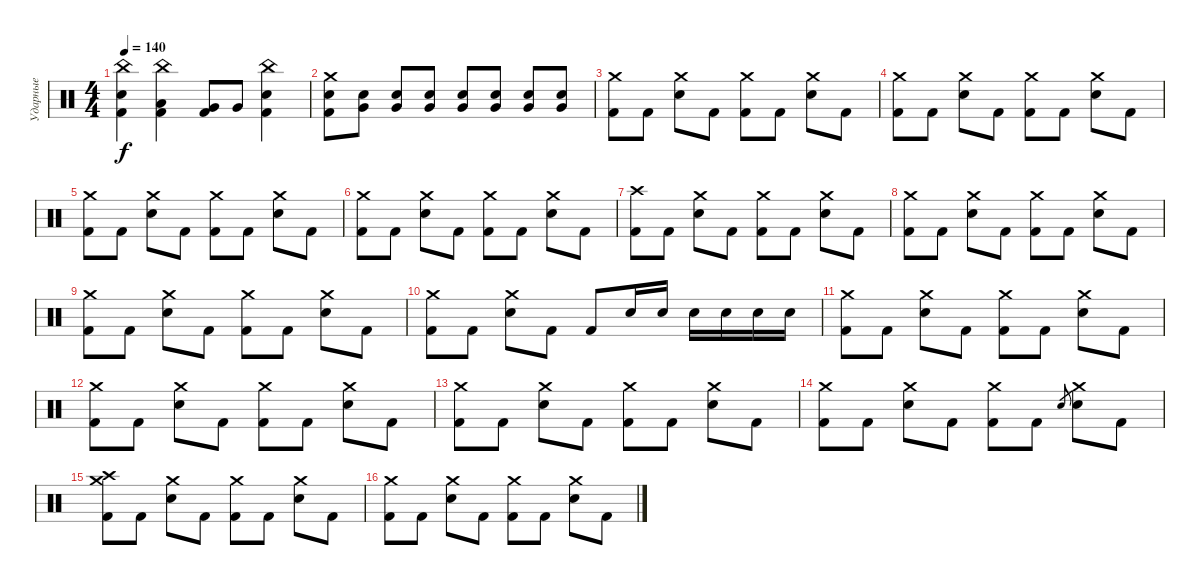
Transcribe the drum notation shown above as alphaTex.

\track ("Ударные" "Ударные") {instrument percussion}
\staff {score}
\articulation defaults
\ts (4 4)
\tempo 140
\clef neutral
\ks c
("China (hit)" "Electric Snare (hit)" "Kick (hit) 2").4{dy f} ("China (hit)" "Low Tom (hit)" "Kick (hit) 2").4 ("Very Low Tom (hit)" "Kick (hit) 2").8 "Very Low Tom (hit)".8 ("Electric Snare (hit)" "China (hit)" "Kick (hit) 2").4 |
("Crash medium (hit)" "Electric Snare (hit)" "Kick (hit) 2").8 ("Electric Snare (hit)" "Very Low Tom (hit)").8 ("Electric Snare (hit)" "Very Low Tom (hit)").8 ("Electric Snare (hit)" "Very Low Tom (hit)").8 ("Electric Snare (hit)" "Very Low Tom (hit)").8 ("Electric Snare (hit)" "Very Low Tom (hit)").8 ("Electric Snare (hit)" "Very Low Tom (hit)").8 ("Electric Snare (hit)" "Very Low Tom (hit)").8 |
("Crash medium (hit)" "Kick (hit) 2").8 "Kick (hit) 2".8 ("Electric Snare (hit)" "Crash medium (hit)").8 "Kick (hit) 2".8 ("Kick (hit) 2" "Crash medium (hit)").8 "Kick (hit) 2".8 ("Electric Snare (hit)" "Crash medium (hit)").8 "Kick (hit) 2".8 |
("Crash medium (hit)" "Kick (hit) 2").8 "Kick (hit) 2".8 ("Electric Snare (hit)" "Crash medium (hit)").8 "Kick (hit) 2".8 ("Kick (hit) 2" "Crash medium (hit)").8 "Kick (hit) 2".8 ("Electric Snare (hit)" "Crash medium (hit)").8 "Kick (hit) 2".8 |
("Crash medium (hit)" "Kick (hit) 2").8 "Kick (hit) 2".8 ("Electric Snare (hit)" "Crash medium (hit)").8 "Kick (hit) 2".8 ("Kick (hit) 2" "Crash medium (hit)").8 "Kick (hit) 2".8 ("Electric Snare (hit)" "Crash medium (hit)").8 "Kick (hit) 2".8 |
("Crash medium (hit)" "Kick (hit) 2").8 "Kick (hit) 2".8 ("Electric Snare (hit)" "Crash medium (hit)").8 "Kick (hit) 2".8 ("Kick (hit) 2" "Crash medium (hit)").8 "Kick (hit) 2".8 ("Electric Snare (hit)" "Crash medium (hit)").8 "Kick (hit) 2".8 |
("Crash high (hit)" "Kick (hit) 2").8 "Kick (hit) 2".8 ("Electric Snare (hit)" "Crash medium (hit)").8 "Kick (hit) 2".8 ("Kick (hit) 2" "Crash medium (hit)").8 "Kick (hit) 2".8 ("Electric Snare (hit)" "Crash medium (hit)").8 "Kick (hit) 2".8 |
("Crash medium (hit)" "Kick (hit) 2").8 "Kick (hit) 2".8 ("Electric Snare (hit)" "Crash medium (hit)").8 "Kick (hit) 2".8 ("Kick (hit) 2" "Crash medium (hit)").8 "Kick (hit) 2".8 ("Electric Snare (hit)" "Crash medium (hit)").8 "Kick (hit) 2".8 |
("Crash medium (hit)" "Kick (hit) 2").8 "Kick (hit) 2".8 ("Electric Snare (hit)" "Crash medium (hit)").8 "Kick (hit) 2".8 ("Kick (hit) 2" "Crash medium (hit)").8 "Kick (hit) 2".8 ("Electric Snare (hit)" "Crash medium (hit)").8 "Kick (hit) 2".8 |
("Crash medium (hit)" "Kick (hit) 2").8 "Kick (hit) 2".8 ("Electric Snare (hit)" "Crash medium (hit)").8 "Kick (hit) 2".8 "Kick (hit) 2".8 "Electric Snare (hit)".16 "Electric Snare (hit)".16 "Electric Snare (hit)".16 "Electric Snare (hit)".16 "Electric Snare (hit)".16 "Electric Snare (hit)".16 |
("Crash medium (hit)" "Kick (hit) 2").8 "Kick (hit) 2".8 ("Electric Snare (hit)" "Crash medium (hit)").8 "Kick (hit) 2".8 ("Kick (hit) 2" "Crash medium (hit)").8 "Kick (hit) 2".8 ("Electric Snare (hit)" "Crash medium (hit)").8 "Kick (hit) 2".8 |
("Crash medium (hit)" "Kick (hit) 2").8 "Kick (hit) 2".8 ("Electric Snare (hit)" "Crash medium (hit)").8 "Kick (hit) 2".8 ("Kick (hit) 2" "Crash medium (hit)").8 "Kick (hit) 2".8 ("Electric Snare (hit)" "Crash medium (hit)").8 "Kick (hit) 2".8 |
("Crash medium (hit)" "Kick (hit) 2").8 "Kick (hit) 2".8 ("Electric Snare (hit)" "Crash medium (hit)").8 "Kick (hit) 2".8 ("Kick (hit) 2" "Crash medium (hit)").8 "Kick (hit) 2".8 ("Electric Snare (hit)" "Crash medium (hit)").8 "Kick (hit) 2".8 |
("Crash medium (hit)" "Kick (hit) 2").8 "Kick (hit) 2".8 ("Electric Snare (hit)" "Crash medium (hit)").8 "Kick (hit) 2".8 ("Crash medium (hit)" "Kick (hit) 2").8 "Kick (hit) 2".8 "Electric Snare (hit)".8{gr} ("Electric Snare (hit)" "Crash medium (hit)").8 "Kick (hit) 2".8 |
("Crash medium (hit)" "Crash high (hit)" "Kick (hit) 2").8 "Kick (hit) 2".8 ("Electric Snare (hit)" "Crash medium (hit)").8 "Kick (hit) 2".8 ("Kick (hit) 2" "Crash medium (hit)").8 "Kick (hit) 2".8 ("Electric Snare (hit)" "Crash medium (hit)").8 "Kick (hit) 2".8 |
("Crash medium (hit)" "Kick (hit) 2").8 "Kick (hit) 2".8 ("Electric Snare (hit)" "Crash medium (hit)").8 "Kick (hit) 2".8 ("Kick (hit) 2" "Crash medium (hit)").8 "Kick (hit) 2".8 ("Electric Snare (hit)" "Crash medium (hit)").8 "Kick (hit) 2".8
